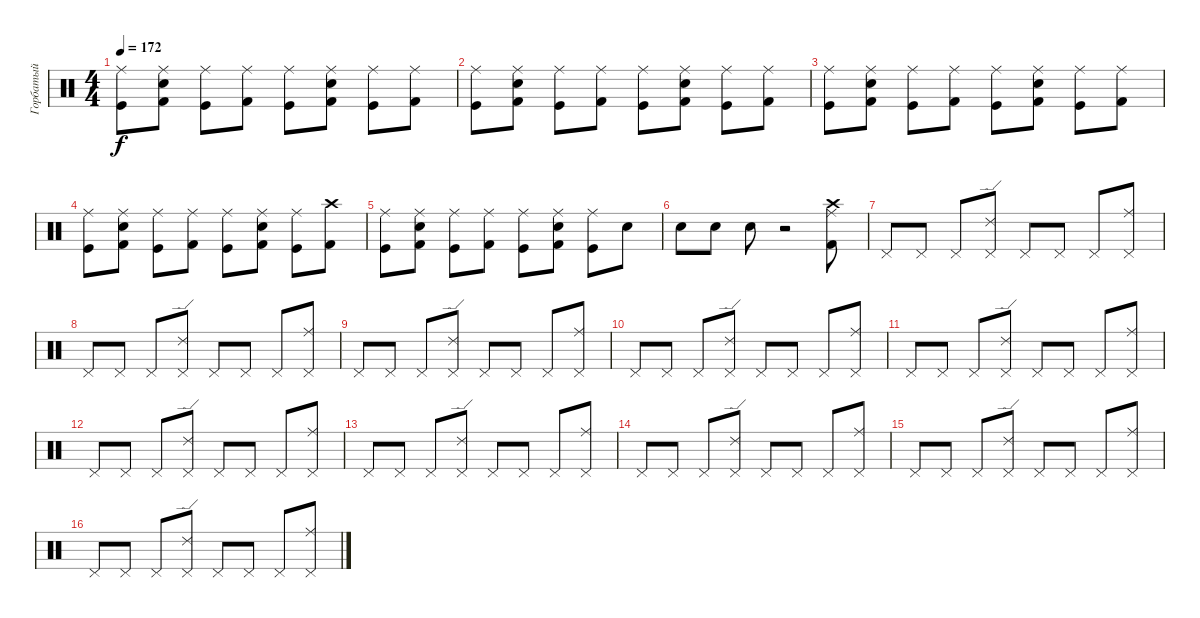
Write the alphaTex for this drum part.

\track ("Горбатый" "Горбатый") {instrument percussion}
\staff {score}
\articulation defaults
\ts (4 4)
\tempo 172
\clef neutral
\ks c
("Ride (middle)" "Kick (hit)").8{dy f} ("Electric Snare (hit)" "Ride (middle)" "Kick (hit) 2").8 ("Ride (middle)" "Kick (hit)").8 ("Ride (middle)" "Kick (hit) 2").8 ("Ride (middle)" "Kick (hit)").8 ("Electric Snare (hit)" "Ride (middle)" "Kick (hit) 2").8 ("Ride (middle)" "Kick (hit)").8 ("Ride (middle)" "Kick (hit) 2").8 |
("Ride (middle)" "Kick (hit)").8 ("Electric Snare (hit)" "Ride (middle)" "Kick (hit) 2").8 ("Ride (middle)" "Kick (hit)").8 ("Ride (middle)" "Kick (hit) 2").8 ("Ride (middle)" "Kick (hit)").8 ("Electric Snare (hit)" "Ride (middle)" "Kick (hit) 2").8 ("Ride (middle)" "Kick (hit)").8 ("Ride (middle)" "Kick (hit) 2").8 |
("Ride (middle)" "Kick (hit)").8 ("Electric Snare (hit)" "Ride (middle)" "Kick (hit) 2").8 ("Ride (middle)" "Kick (hit)").8 ("Ride (middle)" "Kick (hit) 2").8 ("Ride (middle)" "Kick (hit)").8 ("Electric Snare (hit)" "Ride (middle)" "Kick (hit) 2").8 ("Ride (middle)" "Kick (hit)").8 ("Ride (middle)" "Kick (hit) 2").8 |
("Ride (middle)" "Kick (hit)").8 ("Electric Snare (hit)" "Ride (middle)" "Kick (hit) 2").8 ("Ride (middle)" "Kick (hit)").8 ("Ride (middle)" "Kick (hit) 2").8 ("Ride (middle)" "Kick (hit)").8 ("Electric Snare (hit)" "Ride (middle)" "Kick (hit) 2").8 ("Ride (middle)" "Kick (hit)").8 ("Crash high (hit)" "Kick (hit) 2").8 |
("Ride (middle)" "Kick (hit)").8 ("Electric Snare (hit)" "Ride (middle)" "Kick (hit) 2").8 ("Ride (middle)" "Kick (hit)").8 ("Ride (middle)" "Kick (hit) 2").8 ("Ride (middle)" "Kick (hit)").8 ("Electric Snare (hit)" "Ride (middle)" "Kick (hit) 2").8 ("Ride (middle)" "Kick (hit)").8 "Electric Snare (hit)".8 |
"Electric Snare (hit)".8 "Electric Snare (hit)".8 "Electric Snare (hit)".8 r.2 ("Crash high (hit)" "Ride (middle)" "Kick (hit) 2").8 |
"Pedal Hi-Hat (hit)".8 "Pedal Hi-Hat (hit)".8 "Pedal Hi-Hat (hit)".8 ("Ride (edge) 2" "Pedal Hi-Hat (hit)").8 "Pedal Hi-Hat (hit)".8 "Pedal Hi-Hat (hit)".8 "Pedal Hi-Hat (hit)".8 ("Ride (middle)" "Pedal Hi-Hat (hit)").8 |
"Pedal Hi-Hat (hit)".8 "Pedal Hi-Hat (hit)".8 "Pedal Hi-Hat (hit)".8 ("Ride (edge) 2" "Pedal Hi-Hat (hit)").8 "Pedal Hi-Hat (hit)".8 "Pedal Hi-Hat (hit)".8 "Pedal Hi-Hat (hit)".8 ("Ride (middle)" "Pedal Hi-Hat (hit)").8 |
"Pedal Hi-Hat (hit)".8 "Pedal Hi-Hat (hit)".8 "Pedal Hi-Hat (hit)".8 ("Ride (edge) 2" "Pedal Hi-Hat (hit)").8 "Pedal Hi-Hat (hit)".8 "Pedal Hi-Hat (hit)".8 "Pedal Hi-Hat (hit)".8 ("Ride (middle)" "Pedal Hi-Hat (hit)").8 |
"Pedal Hi-Hat (hit)".8 "Pedal Hi-Hat (hit)".8 "Pedal Hi-Hat (hit)".8 ("Ride (edge) 2" "Pedal Hi-Hat (hit)").8 "Pedal Hi-Hat (hit)".8 "Pedal Hi-Hat (hit)".8 "Pedal Hi-Hat (hit)".8 ("Ride (middle)" "Pedal Hi-Hat (hit)").8 |
"Pedal Hi-Hat (hit)".8 "Pedal Hi-Hat (hit)".8 "Pedal Hi-Hat (hit)".8 ("Ride (edge) 2" "Pedal Hi-Hat (hit)").8 "Pedal Hi-Hat (hit)".8 "Pedal Hi-Hat (hit)".8 "Pedal Hi-Hat (hit)".8 ("Ride (middle)" "Pedal Hi-Hat (hit)").8 |
"Pedal Hi-Hat (hit)".8 "Pedal Hi-Hat (hit)".8 "Pedal Hi-Hat (hit)".8 ("Ride (edge) 2" "Pedal Hi-Hat (hit)").8 "Pedal Hi-Hat (hit)".8 "Pedal Hi-Hat (hit)".8 "Pedal Hi-Hat (hit)".8 ("Ride (middle)" "Pedal Hi-Hat (hit)").8 |
"Pedal Hi-Hat (hit)".8 "Pedal Hi-Hat (hit)".8 "Pedal Hi-Hat (hit)".8 ("Ride (edge) 2" "Pedal Hi-Hat (hit)").8 "Pedal Hi-Hat (hit)".8 "Pedal Hi-Hat (hit)".8 "Pedal Hi-Hat (hit)".8 ("Ride (middle)" "Pedal Hi-Hat (hit)").8 |
"Pedal Hi-Hat (hit)".8 "Pedal Hi-Hat (hit)".8 "Pedal Hi-Hat (hit)".8 ("Ride (edge) 2" "Pedal Hi-Hat (hit)").8 "Pedal Hi-Hat (hit)".8 "Pedal Hi-Hat (hit)".8 "Pedal Hi-Hat (hit)".8 ("Ride (middle)" "Pedal Hi-Hat (hit)").8 |
"Pedal Hi-Hat (hit)".8 "Pedal Hi-Hat (hit)".8 "Pedal Hi-Hat (hit)".8 ("Ride (edge) 2" "Pedal Hi-Hat (hit)").8 "Pedal Hi-Hat (hit)".8 "Pedal Hi-Hat (hit)".8 "Pedal Hi-Hat (hit)".8 ("Ride (middle)" "Pedal Hi-Hat (hit)").8 |
"Pedal Hi-Hat (hit)".8 "Pedal Hi-Hat (hit)".8 "Pedal Hi-Hat (hit)".8 ("Ride (edge) 2" "Pedal Hi-Hat (hit)").8 "Pedal Hi-Hat (hit)".8 "Pedal Hi-Hat (hit)".8 "Pedal Hi-Hat (hit)".8 ("Ride (middle)" "Pedal Hi-Hat (hit)").8
